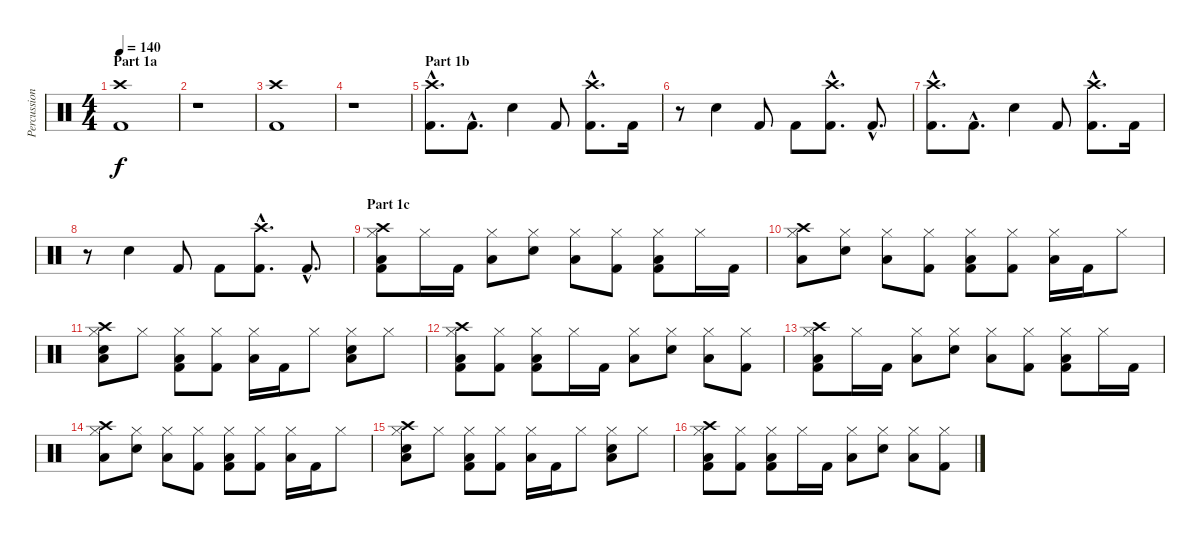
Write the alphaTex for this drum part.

\track ("Percussion" "Percussion") {instrument percussion}
\staff {score}
\articulation defaults
\ts (4 4)
\section ("" "Part 1a")
\tempo 140
\clef neutral
\ks c
("Crash high (hit)" "Kick (hit) 2").1{dy f} |
r.1 |
("Crash high (hit)" "Kick (hit) 2").1 |
r.1 |
\section ("" "Part 1b")
("Crash high (hit)"{hac} "Kick (hit) 2"{hac}).8{d} "Kick (hit) 2"{hac}.8{d} "Electric Snare (hit)".4 "Kick (hit) 2".8 ("Crash high (hit)"{hac} "Kick (hit) 2"{hac}).8{d} "Kick (hit) 2".16 |
r.8 "Electric Snare (hit)".4 "Kick (hit) 2".8 "Kick (hit) 2".8 ("Crash high (hit)"{hac} "Kick (hit) 2"{hac}).8{d} "Kick (hit) 2"{hac}.8{d} |
("Crash high (hit)"{hac} "Kick (hit) 2"{hac}).8{d} "Kick (hit) 2"{hac}.8{d} "Electric Snare (hit)".4 "Kick (hit) 2".8 ("Crash high (hit)"{hac} "Kick (hit) 2"{hac}).8{d} "Kick (hit) 2".16 |
r.8 "Electric Snare (hit)".4 "Kick (hit) 2".8 "Kick (hit) 2".8 ("Crash high (hit)"{hac} "Kick (hit) 2"{hac}).8{d} "Kick (hit) 2"{hac}.8{d} |
\section ("" "Part 1c")
("Crash high (hit)" "Hi-Hat (closed)" "Low Tom (hit)" "Kick (hit) 2").8 "Hi-Hat (closed)".16 "Kick (hit) 2".16 ("Hi-Hat (closed)" "Low Tom (hit)").8 ("Hi-Hat (closed)" "Electric Snare (hit)").8 ("Hi-Hat (closed)" "Low Tom (hit)").8 ("Hi-Hat (closed)" "Kick (hit) 2").8 ("Hi-Hat (closed)" "Low Tom (hit)" "Kick (hit) 2").8 "Hi-Hat (closed)".16 "Kick (hit) 2".16 |
("Crash high (hit)" "Hi-Hat (closed)" "Low Tom (hit)").8 ("Hi-Hat (closed)" "Electric Snare (hit)").8 ("Hi-Hat (closed)" "Low Tom (hit)").8 ("Hi-Hat (closed)" "Kick (hit) 2").8 ("Hi-Hat (closed)" "Low Tom (hit)" "Kick (hit) 2").8 ("Hi-Hat (closed)" "Kick (hit) 2").8 ("Hi-Hat (closed)" "Low Tom (hit)").16 "Kick (hit) 2".16 "Hi-Hat (closed)".8 |
("Crash high (hit)" "Hi-Hat (closed)" "Low Tom (hit)" "Electric Snare (hit)").8 "Hi-Hat (closed)".8 ("Hi-Hat (closed)" "Low Tom (hit)" "Kick (hit) 2").8 ("Hi-Hat (closed)" "Kick (hit) 2").8 ("Hi-Hat (closed)" "Low Tom (hit)").16 "Kick (hit) 2".16 "Hi-Hat (closed)".8 ("Hi-Hat (closed)" "Low Tom (hit)" "Electric Snare (hit)").8 "Hi-Hat (closed)".8 |
("Crash high (hit)" "Hi-Hat (closed)" "Low Tom (hit)" "Kick (hit) 2").8 ("Hi-Hat (closed)" "Kick (hit) 2").8 ("Hi-Hat (closed)" "Low Tom (hit)" "Kick (hit) 2").8 "Hi-Hat (closed)".16 "Kick (hit) 2".16 ("Hi-Hat (closed)" "Low Tom (hit)").8 ("Hi-Hat (closed)" "Electric Snare (hit)").8 ("Hi-Hat (closed)" "Low Tom (hit)").8 ("Hi-Hat (closed)" "Kick (hit) 2").8 |
("Crash high (hit)" "Hi-Hat (closed)" "Low Tom (hit)" "Kick (hit) 2").8 "Hi-Hat (closed)".16 "Kick (hit) 2".16 ("Hi-Hat (closed)" "Low Tom (hit)").8 ("Hi-Hat (closed)" "Electric Snare (hit)").8 ("Hi-Hat (closed)" "Low Tom (hit)").8 ("Hi-Hat (closed)" "Kick (hit) 2").8 ("Hi-Hat (closed)" "Low Tom (hit)" "Kick (hit) 2").8 "Hi-Hat (closed)".16 "Kick (hit) 2".16 |
("Crash high (hit)" "Hi-Hat (closed)" "Low Tom (hit)").8 ("Hi-Hat (closed)" "Electric Snare (hit)").8 ("Hi-Hat (closed)" "Low Tom (hit)").8 ("Hi-Hat (closed)" "Kick (hit) 2").8 ("Hi-Hat (closed)" "Low Tom (hit)" "Kick (hit) 2").8 ("Hi-Hat (closed)" "Kick (hit) 2").8 ("Hi-Hat (closed)" "Low Tom (hit)").16 "Kick (hit) 2".16 "Hi-Hat (closed)".8 |
("Crash high (hit)" "Hi-Hat (closed)" "Low Tom (hit)" "Electric Snare (hit)").8 "Hi-Hat (closed)".8 ("Hi-Hat (closed)" "Low Tom (hit)" "Kick (hit) 2").8 ("Hi-Hat (closed)" "Kick (hit) 2").8 ("Hi-Hat (closed)" "Low Tom (hit)").16 "Kick (hit) 2".16 "Hi-Hat (closed)".8 ("Hi-Hat (closed)" "Low Tom (hit)" "Electric Snare (hit)").8 "Hi-Hat (closed)".8 |
("Crash high (hit)" "Hi-Hat (closed)" "Low Tom (hit)" "Kick (hit) 2").8 ("Hi-Hat (closed)" "Kick (hit) 2").8 ("Hi-Hat (closed)" "Low Tom (hit)" "Kick (hit) 2").8 "Hi-Hat (closed)".16 "Kick (hit) 2".16 ("Hi-Hat (closed)" "Low Tom (hit)").8 ("Hi-Hat (closed)" "Electric Snare (hit)").8 ("Hi-Hat (closed)" "Low Tom (hit)").8 ("Hi-Hat (closed)" "Kick (hit) 2").8
